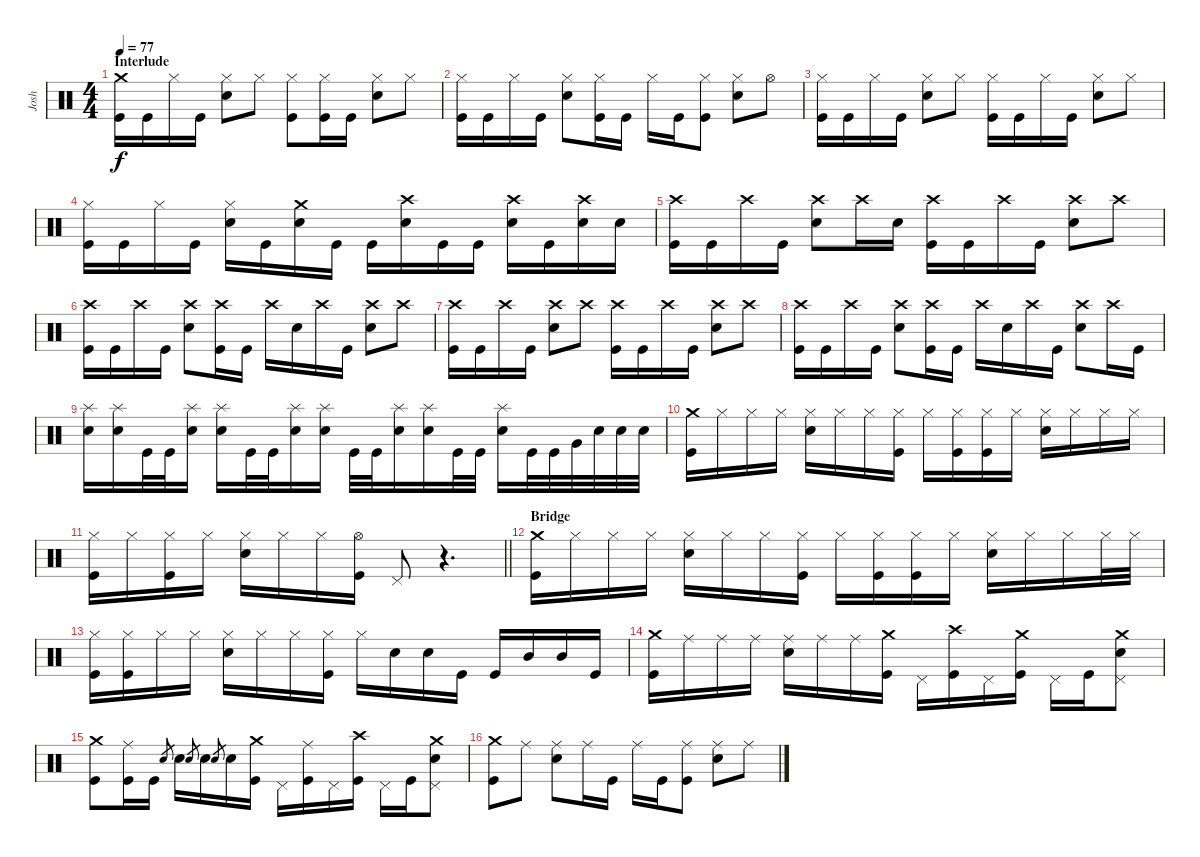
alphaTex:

\track ("Josh" "Josh") {instrument percussion}
\staff {score}
\articulation defaults
\ts (4 4)
\section ("" "Interlude")
\tempo 77
\clef neutral
\ks c
("Crash medium (hit)" "Kick (hit)").16{dy f} "Kick (hit)".16 "Hi-Hat (closed)".16 "Kick (hit)".16 ("Hi-Hat (closed)" "Snare (hit) 2").8 "Hi-Hat (closed)".8 ("Hi-Hat (closed)" "Kick (hit)").8 ("Hi-Hat (closed)" "Kick (hit)").16 "Kick (hit)".16 ("Hi-Hat (closed)" "Snare (hit) 2").8 "Hi-Hat (closed)".8 |
("Hi-Hat (closed)" "Kick (hit)").16 "Kick (hit)".16 "Hi-Hat (closed)".16 "Kick (hit)".16 ("Hi-Hat (closed)" "Snare (hit) 2").8 ("Hi-Hat (closed)" "Kick (hit)").16 "Kick (hit)".16 "Hi-Hat (closed)".16 "Kick (hit)".16 ("Hi-Hat (closed)" "Kick (hit)").8 ("Hi-Hat (closed)" "Snare (hit) 2").8 "Hi-Hat (open)".8 |
("Hi-Hat (closed)" "Kick (hit)").16 "Kick (hit)".16 "Hi-Hat (closed)".16 "Kick (hit)".16 ("Hi-Hat (closed)" "Snare (hit) 2").8 "Hi-Hat (closed)".8 ("Hi-Hat (closed)" "Kick (hit)").16 "Kick (hit)".16 "Hi-Hat (closed)".16 "Kick (hit)".16 ("Hi-Hat (closed)" "Snare (hit) 2").8 "Hi-Hat (closed)".8 |
("Hi-Hat (closed)" "Kick (hit)").16 "Kick (hit)".16 "Hi-Hat (closed)".16 "Kick (hit)".16 ("Hi-Hat (closed)" "Snare (hit) 2").16 "Kick (hit)".16 ("Crash medium (hit)" "Snare (hit) 2").16 "Kick (hit)".16 "Kick (hit)".16 ("Crash high (hit)" "Snare (hit) 2").16 "Kick (hit)".16 "Kick (hit)".16 ("Crash high (hit)" "Snare (hit) 2").16 "Kick (hit)".16 ("Crash high (hit)" "Snare (hit) 2").16 "Snare (hit) 2".16 |
("Crash high (hit)" "Kick (hit)").16 "Kick (hit)".16 "Crash high (hit)".16 "Kick (hit)".16 ("Crash high (hit)" "Snare (hit) 2").8 "Crash high (hit)".16 "Snare (hit) 2".16 ("Crash high (hit)" "Kick (hit)").16 "Kick (hit)".16 "Crash high (hit)".16 "Kick (hit)".16 ("Crash high (hit)" "Snare (hit) 2").8 "Crash high (hit)".8 |
("Crash high (hit)" "Kick (hit)").16 "Kick (hit)".16 "Crash high (hit)".16 "Kick (hit)".16 ("Crash high (hit)" "Snare (hit) 2").8 ("Crash high (hit)" "Kick (hit)").16 "Kick (hit)".16 "Crash high (hit)".16 "Snare (hit) 2".16 "Crash high (hit)".16 "Kick (hit)".16 ("Crash high (hit)" "Snare (hit) 2").8 "Crash high (hit)".8 |
("Crash high (hit)" "Kick (hit)").16 "Kick (hit)".16 "Crash high (hit)".16 "Kick (hit)".16 ("Crash high (hit)" "Snare (hit) 2").8 "Crash high (hit)".8 ("Crash high (hit)" "Kick (hit)").16 "Kick (hit)".16 "Crash high (hit)".16 "Kick (hit)".16 ("Crash high (hit)" "Snare (hit) 2").8 "Crash high (hit)".8 |
("Crash high (hit)" "Kick (hit)").16 "Kick (hit)".16 "Crash high (hit)".16 "Kick (hit)".16 ("Crash high (hit)" "Snare (hit) 2").8 ("Crash high (hit)" "Kick (hit)").16 "Kick (hit)".16 "Crash high (hit)".16 "Snare (hit) 2".16 "Crash high (hit)".16 "Kick (hit)".16 ("Crash high (hit)" "Snare (hit) 2").8 "Crash high (hit)".16 "Kick (hit)".16 |
("Splash (hit)" "Snare (hit) 2").16 ("Splash (hit)" "Snare (hit) 2").16 "Kick (hit)".32 "Kick (hit)".32 ("Splash (hit)" "Snare (hit) 2").16 ("Splash (hit)" "Snare (hit) 2").16 "Kick (hit)".32 "Kick (hit)".32 ("Splash (hit)" "Snare (hit) 2").16 ("Splash (hit)" "Snare (hit) 2").16 "Kick (hit)".32 "Kick (hit)".32 ("Splash (hit)" "Snare (hit) 2").16 ("Splash (hit)" "Snare (hit) 2").16 "Kick (hit)".32 "Kick (hit)".32 ("Splash (hit)" "Snare (hit) 2").16 "Kick (hit)".32 "Kick (hit)".32 "Very Low Tom (hit)".32 "Snare (hit) 2".32 "Snare (hit) 2".32 "Snare (hit) 2".32 |
("Crash medium (hit)" "Kick (hit)").16 "Hi-Hat (closed)".16 "Hi-Hat (closed)".16 "Hi-Hat (closed)".16 ("Hi-Hat (closed)" "Snare (hit) 2").16 "Hi-Hat (closed)".16 "Hi-Hat (closed)".16 ("Hi-Hat (closed)" "Kick (hit)").16 "Hi-Hat (closed)".16 ("Hi-Hat (closed)" "Kick (hit)").16 ("Hi-Hat (closed)" "Kick (hit)").16 "Hi-Hat (closed)".16 ("Hi-Hat (closed)" "Snare (hit) 2").16 "Hi-Hat (closed)".16 "Hi-Hat (closed)".16 "Hi-Hat (closed)".16 |
\barLineRight lightlight
("Hi-Hat (closed)" "Kick (hit)").16 "Hi-Hat (closed)".16 ("Hi-Hat (closed)" "Kick (hit)").16 "Hi-Hat (closed)".16 ("Hi-Hat (closed)" "Snare (hit) 2").16 "Hi-Hat (closed)".16 "Hi-Hat (closed)".16 ("Hi-Hat (open)" "Kick (hit)").16 "Pedal Hi-Hat (hit)".8 r.4{d} |
\section ("" "Bridge")
("Crash medium (hit)" "Kick (hit)").16 "Hi-Hat (closed)".16 "Hi-Hat (closed)".16 "Hi-Hat (closed)".16 ("Hi-Hat (closed)" "Snare (hit) 2").16 "Hi-Hat (closed)".16 "Hi-Hat (closed)".16 ("Hi-Hat (closed)" "Kick (hit)").16 "Hi-Hat (closed)".16 ("Hi-Hat (closed)" "Kick (hit)").16 ("Hi-Hat (closed)" "Kick (hit)").16 "Hi-Hat (closed)".16 ("Hi-Hat (closed)" "Snare (hit) 2").16 "Hi-Hat (closed)".16 "Hi-Hat (closed)".16 "Hi-Hat (closed)".32 "Hi-Hat (closed)".32 |
("Hi-Hat (closed)" "Kick (hit)").16 ("Hi-Hat (closed)" "Kick (hit)").16 "Hi-Hat (closed)".16 "Hi-Hat (closed)".16 ("Hi-Hat (closed)" "Snare (hit) 2").16 "Hi-Hat (closed)".16 "Hi-Hat (closed)".16 ("Hi-Hat (closed)" "Kick (hit)").16 "Hi-Hat (closed)".16 "Snare (hit) 2".16 "Snare (hit) 2".16 "Kick (hit)".16 "Kick (hit)".16 "Mid Tom (hit)".16 "Mid Tom (hit)".16 "Kick (hit)".16 |
("Crash medium (hit)" "Kick (hit)").16 "Ride (middle)".16 "Ride (middle)".16 "Ride (middle)".16 ("Ride (middle)" "Snare (hit) 2").16 "Ride (middle)".16 "Ride (middle)".16 ("Crash medium (hit)" "Kick (hit)").16 "Pedal Hi-Hat (hit)".16 ("Crash high (hit)" "Kick (hit)").16 "Pedal Hi-Hat (hit)".16 ("Crash medium (hit)" "Kick (hit)").16 "Pedal Hi-Hat (hit)".16 "Kick (hit)".16 ("Crash medium (hit)" "Snare (hit) 2" "Pedal Hi-Hat (hit)").8 |
("Crash medium (hit)" "Kick (hit)").8 ("Ride (middle)" "Kick (hit)").16 "Kick (hit)".16 "Snare (hit) 2".8{gr} "Snare (hit) 2".16 "Snare (hit) 2".8{gr} "Snare (hit) 2".16 "Snare (hit) 2".8{gr} "Snare (hit) 2".16 ("Crash medium (hit)" "Kick (hit)").16 "Pedal Hi-Hat (hit)".16 ("Ride (middle)" "Kick (hit)").16 "Pedal Hi-Hat (hit)".16 ("Crash high (hit)" "Kick (hit)").16 "Pedal Hi-Hat (hit)".16 "Kick (hit)".16 ("Crash medium (hit)" "Snare (hit) 2" "Pedal Hi-Hat (hit)").8 |
("Crash medium (hit)" "Kick (hit)").8 "Ride (middle)".8 ("Ride (middle)" "Snare (hit) 2").8 "Ride (middle)".16 "Kick (hit)".16 "Ride (middle)".16 "Kick (hit)".16 ("Ride (middle)" "Kick (hit)").8 ("Ride (middle)" "Snare (hit) 2").8 "Ride (middle)".8
